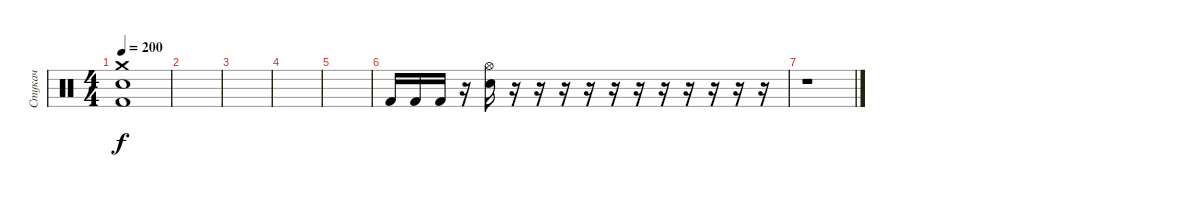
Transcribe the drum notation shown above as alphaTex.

\track ("Стукач" "Стукач") {instrument percussion}
\staff {score}
\articulation defaults
\ts (4 4)
\tempo 200
\clef neutral
\ks c
("Crash medium (hit)" "Electric Snare (hit)" "Kick (hit) 2").1{dy f} |
|
|
|
|
"Kick (hit) 2".16 "Kick (hit) 2".16 "Kick (hit) 2".16 r.16 ("Hi-Hat (open)" "Electric Snare (hit)").16 r.16 r.16 r.16 r.16 r.16 r.16 r.16 r.16 r.16 r.16 r.16 |
r.1
